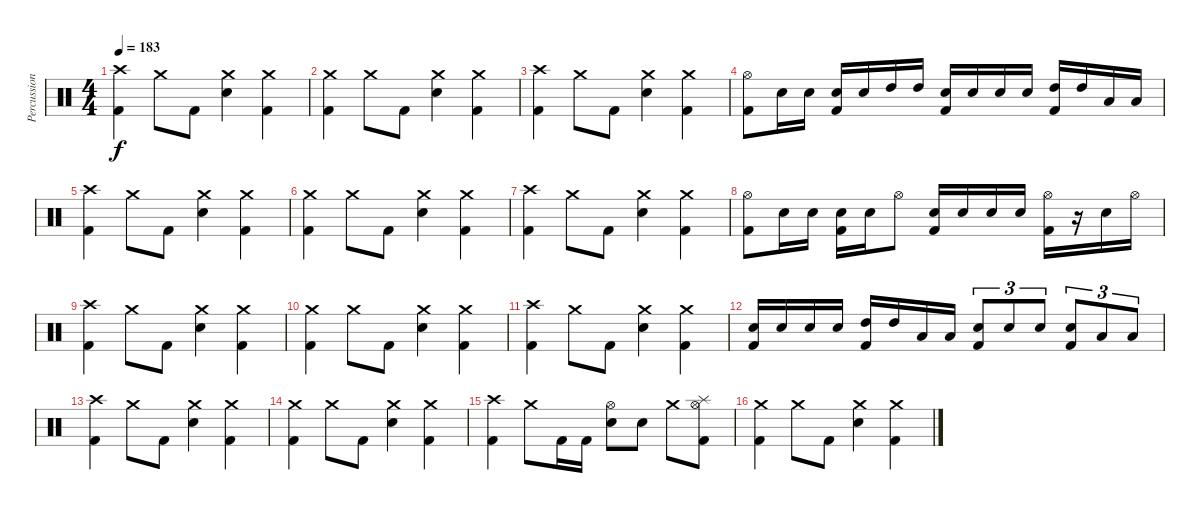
\track ("Percussion" "Percussion") {instrument percussion}
\staff {score}
\articulation defaults
\ts (4 4)
\tempo 183
\clef neutral
\ks c
("Crash high (hit)" "Kick (hit) 2").4{dy f} "Crash medium (hit)".8 "Kick (hit) 2".8 ("Crash medium (hit)" "Electric Snare (hit)").4 ("Crash medium (hit)" "Kick (hit) 2").4 |
("Crash medium (hit)" "Kick (hit) 2").4 "Crash medium (hit)".8 "Kick (hit) 2".8 ("Crash medium (hit)" "Electric Snare (hit)").4 ("Crash medium (hit)" "Kick (hit) 2").4 |
("Crash high (hit)" "Kick (hit) 2").4 "Crash medium (hit)".8 "Kick (hit) 2".8 ("Crash medium (hit)" "Electric Snare (hit)").4 ("Crash medium (hit)" "Kick (hit) 2").4 |
("Hi-Hat (open)" "Kick (hit) 2").8 "Electric Snare (hit)".16 "Electric Snare (hit)".16 ("Electric Snare (hit)" "Kick (hit) 2").16 "Electric Snare (hit)".16 "High Tom (hit)".16 "High Tom (hit)".16 ("Electric Snare (hit)" "Kick (hit) 2").16 "Electric Snare (hit)".16 "Electric Snare (hit)".16 "Electric Snare (hit)".16 ("High Tom (hit)" "Kick (hit) 2").16 "High Tom (hit)".16 "Low Tom (hit)".16 "Low Tom (hit)".16 |
("Crash high (hit)" "Kick (hit) 2").4 "Crash medium (hit)".8 "Kick (hit) 2".8 ("Crash medium (hit)" "Electric Snare (hit)").4 ("Crash medium (hit)" "Kick (hit) 2").4 |
("Crash medium (hit)" "Kick (hit) 2").4 "Crash medium (hit)".8 "Kick (hit) 2".8 ("Crash medium (hit)" "Electric Snare (hit)").4 ("Crash medium (hit)" "Kick (hit) 2").4 |
("Crash high (hit)" "Kick (hit) 2").4 "Crash medium (hit)".8 "Kick (hit) 2".8 ("Crash medium (hit)" "Electric Snare (hit)").4 ("Crash medium (hit)" "Kick (hit) 2").4 |
("Hi-Hat (open)" "Kick (hit) 2").8 "Electric Snare (hit)".16 "Electric Snare (hit)".16 ("Electric Snare (hit)" "Kick (hit) 2").16 "Electric Snare (hit)".16 "Hi-Hat (open)".8 ("Electric Snare (hit)" "Kick (hit) 2").16 "Electric Snare (hit)".16 "Electric Snare (hit)".16 "Electric Snare (hit)".16 ("Hi-Hat (open)" "Kick (hit) 2").16 r.16 "Electric Snare (hit)".16 "Hi-Hat (open)".16 |
("Crash high (hit)" "Kick (hit) 2").4 "Crash medium (hit)".8 "Kick (hit) 2".8 ("Crash medium (hit)" "Electric Snare (hit)").4 ("Crash medium (hit)" "Kick (hit) 2").4 |
("Crash medium (hit)" "Kick (hit) 2").4 "Crash medium (hit)".8 "Kick (hit) 2".8 ("Crash medium (hit)" "Electric Snare (hit)").4 ("Crash medium (hit)" "Kick (hit) 2").4 |
("Crash high (hit)" "Kick (hit) 2").4 "Crash medium (hit)".8 "Kick (hit) 2".8 ("Crash medium (hit)" "Electric Snare (hit)").4 ("Crash medium (hit)" "Kick (hit) 2").4 |
("Electric Snare (hit)" "Kick (hit) 2").16 "Electric Snare (hit)".16 "Electric Snare (hit)".16 "Electric Snare (hit)".16 ("High Tom (hit)" "Kick (hit) 2").16 "High Tom (hit)".16 "Low Tom (hit)".16 "Low Tom (hit)".16 ("Electric Snare (hit)" "Kick (hit) 2").8{tu (3 2)} "Electric Snare (hit)".8{tu (3 2)} "Electric Snare (hit)".8{tu (3 2)} ("Electric Snare (hit)" "Kick (hit) 2").8{tu (3 2)} "Low Tom (hit)".8{tu (3 2)} "Low Tom (hit)".8{tu (3 2)} |
("Crash high (hit)" "Kick (hit) 2").4 "Crash medium (hit)".8 "Kick (hit) 2".8 ("Crash medium (hit)" "Electric Snare (hit)").4 ("Crash medium (hit)" "Kick (hit) 2").4 |
("Crash medium (hit)" "Kick (hit) 2").4 "Crash medium (hit)".8 "Kick (hit) 2".8 ("Crash medium (hit)" "Electric Snare (hit)").4 ("Crash medium (hit)" "Kick (hit) 2").4 |
("Crash high (hit)" "Kick (hit) 2").4 "Crash medium (hit)".8 "Kick (hit) 2".16 "Kick (hit) 2".16 ("Hi-Hat (open)" "Electric Snare (hit)").8 "Electric Snare (hit)".8 "Crash medium (hit)".8 ("Hi-Hat (open)" "Splash (hit)" "Kick (hit) 2").8 |
("Crash medium (hit)" "Kick (hit) 2").4 "Crash medium (hit)".8 "Kick (hit) 2".8 ("Crash medium (hit)" "Electric Snare (hit)").4 ("Crash medium (hit)" "Kick (hit) 2").4
